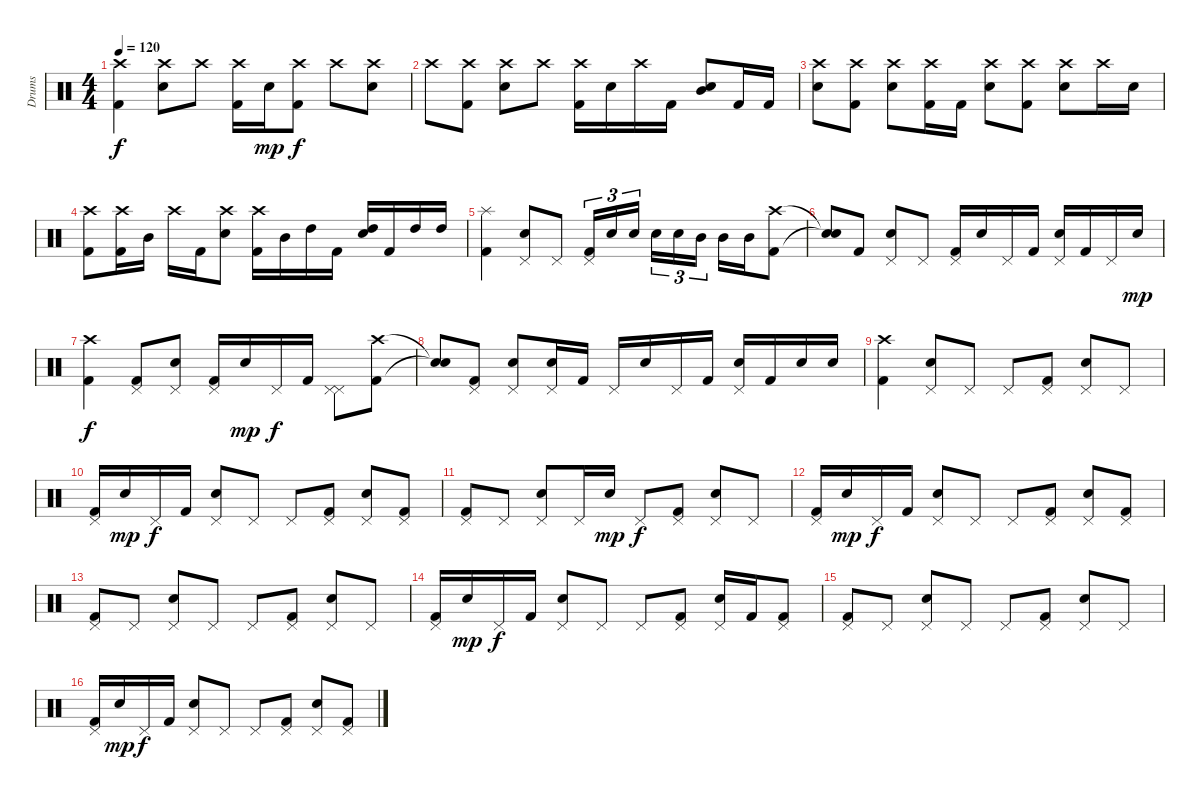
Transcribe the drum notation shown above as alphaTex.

\track ("Drums" "Drums") {instrument percussion}
\staff {score}
\articulation defaults
\ts (4 4)
\tempo 120
\clef neutral
\ks c
("Crash high (hit)" "Kick (hit) 2").4{dy f} ("Crash high (hit)" "Electric Snare (hit)").8 "Crash high (hit)".8 ("Crash high (hit)" "Kick (hit) 2").16 "Electric Snare (hit)".16{dy mp} ("Crash high (hit)" "Kick (hit) 2").8{dy f} "Crash high (hit)".8 ("Crash high (hit)" "Electric Snare (hit)").8 |
"Crash high (hit)".8 ("Crash high (hit)" "Kick (hit) 2").8 ("Crash high (hit)" "Electric Snare (hit)").8 "Crash high (hit)".8 ("Crash high (hit)" "Kick (hit) 2").16 "Electric Snare (hit)".16 "Crash high (hit)".16 "Kick (hit) 2".16 ("Mid Tom (hit)" "Electric Snare (hit)").8 "Kick (hit) 2".16 "Kick (hit) 2".16 |
("Crash high (hit)" "Electric Snare (hit)").8 ("Crash high (hit)" "Kick (hit) 2").8 ("Crash high (hit)" "Electric Snare (hit)").8 ("Crash high (hit)" "Kick (hit) 2").16 "Kick (hit) 2".16 ("Crash high (hit)" "Electric Snare (hit)").8 ("Crash high (hit)" "Kick (hit) 2").8 ("Crash high (hit)" "Electric Snare (hit)").8 "Crash high (hit)".16 "Electric Snare (hit)".16 |
("Crash high (hit)" "Kick (hit) 2").8 ("Crash high (hit)" "Kick (hit) 2").16 "Mid Tom (hit)".16 "Crash high (hit)".16 "Kick (hit) 2".16 ("Crash high (hit)" "Electric Snare (hit)").8 ("Crash high (hit)" "Kick (hit) 2").16 "Mid Tom (hit)".16 "High Tom (hit)".16 "Kick (hit) 2".16 ("Electric Snare (hit)" "High Tom (hit)").16 "Kick (hit) 2".16 "High Tom (hit)".16 "High Tom (hit)".16 |
("Splash (hit)" "Kick (hit) 2").4 ("Pedal Hi-Hat (hit)" "Electric Snare (hit)").8 "Pedal Hi-Hat (hit)".8 ("Pedal Hi-Hat (hit)" "Kick (hit) 2").16{tu (3 2)} "Electric Snare (hit)".16{tu (3 2)} "Electric Snare (hit)".16{tu (3 2)} "Electric Snare (hit)".16{tu (3 2)} "Electric Snare (hit)".16{tu (3 2)} "Mid Tom (hit)".16{tu (3 2)} "Mid Tom (hit)".16 "Mid Tom (hit)".16 ("Crash high (hit)" "Kick (hit) 2").8 |
("Snare (hit)"{t} "Snare (hit)"{t}).8 "Kick (hit) 2".8 ("Pedal Hi-Hat (hit)" "Electric Snare (hit)").8 "Pedal Hi-Hat (hit)".8 ("Pedal Hi-Hat (hit)" "Kick (hit) 2").16 "Electric Snare (hit)".16 "Pedal Hi-Hat (hit)".16 "Kick (hit) 2".16 ("Pedal Hi-Hat (hit)" "Electric Snare (hit)").16 "Kick (hit) 2".16 "Pedal Hi-Hat (hit)".16 "Electric Snare (hit)".16{dy mp} |
("Crash high (hit)" "Kick (hit) 2").4{dy f} ("Pedal Hi-Hat (hit)" "Kick (hit) 2").8 ("Pedal Hi-Hat (hit)" "Electric Snare (hit)").8 ("Pedal Hi-Hat (hit)" "Kick (hit) 2").16 "Electric Snare (hit)".16{dy mp} "Pedal Hi-Hat (hit)".16{dy f} "Kick (hit) 2".16 ("Pedal Hi-Hat (hit)" "Pedal Hi-Hat (hit)").8 ("Crash high (hit)" "Kick (hit) 2").8 |
("Snare (hit)"{t} "Snare (hit)"{t}).8 ("Pedal Hi-Hat (hit)" "Kick (hit) 2").8 ("Pedal Hi-Hat (hit)" "Electric Snare (hit)").8 ("Pedal Hi-Hat (hit)" "Electric Snare (hit)").16 "Kick (hit) 2".16 "Pedal Hi-Hat (hit)".16 "Electric Snare (hit)".16 "Pedal Hi-Hat (hit)".16 "Kick (hit) 2".16 ("Pedal Hi-Hat (hit)" "Electric Snare (hit)").16 "Kick (hit) 2".16 "Electric Snare (hit)".16 "Electric Snare (hit)".16 |
("Crash high (hit)" "Kick (hit) 2").4 ("Pedal Hi-Hat (hit)" "Electric Snare (hit)").8 "Pedal Hi-Hat (hit)".8 "Pedal Hi-Hat (hit)".8 ("Pedal Hi-Hat (hit)" "Kick (hit) 2").8 ("Pedal Hi-Hat (hit)" "Electric Snare (hit)").8 "Pedal Hi-Hat (hit)".8 |
("Pedal Hi-Hat (hit)" "Kick (hit) 2").16 "Electric Snare (hit)".16{dy mp} "Pedal Hi-Hat (hit)".16{dy f} "Kick (hit) 2".16 ("Pedal Hi-Hat (hit)" "Electric Snare (hit)").8 "Pedal Hi-Hat (hit)".8 "Pedal Hi-Hat (hit)".8 ("Pedal Hi-Hat (hit)" "Kick (hit) 2").8 ("Pedal Hi-Hat (hit)" "Electric Snare (hit)").8 ("Pedal Hi-Hat (hit)" "Kick (hit) 2").8 |
("Pedal Hi-Hat (hit)" "Kick (hit) 2").8 "Pedal Hi-Hat (hit)".8 ("Pedal Hi-Hat (hit)" "Electric Snare (hit)").8 "Pedal Hi-Hat (hit)".16 "Electric Snare (hit)".16{dy mp} "Pedal Hi-Hat (hit)".8{dy f} ("Pedal Hi-Hat (hit)" "Kick (hit) 2").8 ("Pedal Hi-Hat (hit)" "Electric Snare (hit)").8 "Pedal Hi-Hat (hit)".8 |
("Pedal Hi-Hat (hit)" "Kick (hit) 2").16 "Electric Snare (hit)".16{dy mp} "Pedal Hi-Hat (hit)".16{dy f} "Kick (hit) 2".16 ("Pedal Hi-Hat (hit)" "Electric Snare (hit)").8 "Pedal Hi-Hat (hit)".8 "Pedal Hi-Hat (hit)".8 ("Pedal Hi-Hat (hit)" "Kick (hit) 2").8 ("Pedal Hi-Hat (hit)" "Electric Snare (hit)").8 ("Pedal Hi-Hat (hit)" "Kick (hit) 2").8 |
("Pedal Hi-Hat (hit)" "Kick (hit) 2").8 "Pedal Hi-Hat (hit)".8 ("Pedal Hi-Hat (hit)" "Electric Snare (hit)").8 "Pedal Hi-Hat (hit)".8 "Pedal Hi-Hat (hit)".8 ("Pedal Hi-Hat (hit)" "Kick (hit) 2").8 ("Pedal Hi-Hat (hit)" "Electric Snare (hit)").8 "Pedal Hi-Hat (hit)".8 |
("Pedal Hi-Hat (hit)" "Kick (hit) 2").16 "Electric Snare (hit)".16{dy mp} "Pedal Hi-Hat (hit)".16{dy f} "Kick (hit) 2".16 ("Pedal Hi-Hat (hit)" "Electric Snare (hit)").8 "Pedal Hi-Hat (hit)".8 "Pedal Hi-Hat (hit)".8 ("Pedal Hi-Hat (hit)" "Kick (hit) 2").8 ("Pedal Hi-Hat (hit)" "Electric Snare (hit)").16 "Kick (hit) 2".16 ("Pedal Hi-Hat (hit)" "Kick (hit) 2").8 |
("Pedal Hi-Hat (hit)" "Kick (hit) 2").8 "Pedal Hi-Hat (hit)".8 ("Pedal Hi-Hat (hit)" "Electric Snare (hit)").8 "Pedal Hi-Hat (hit)".8 "Pedal Hi-Hat (hit)".8 ("Pedal Hi-Hat (hit)" "Kick (hit) 2").8 ("Pedal Hi-Hat (hit)" "Electric Snare (hit)").8 "Pedal Hi-Hat (hit)".8 |
("Pedal Hi-Hat (hit)" "Kick (hit) 2").16 "Electric Snare (hit)".16{dy mp} "Pedal Hi-Hat (hit)".16{dy f} "Kick (hit) 2".16 ("Pedal Hi-Hat (hit)" "Electric Snare (hit)").8 "Pedal Hi-Hat (hit)".8 "Pedal Hi-Hat (hit)".8 ("Pedal Hi-Hat (hit)" "Kick (hit) 2").8 ("Pedal Hi-Hat (hit)" "Electric Snare (hit)").8 ("Pedal Hi-Hat (hit)" "Kick (hit) 2").8
